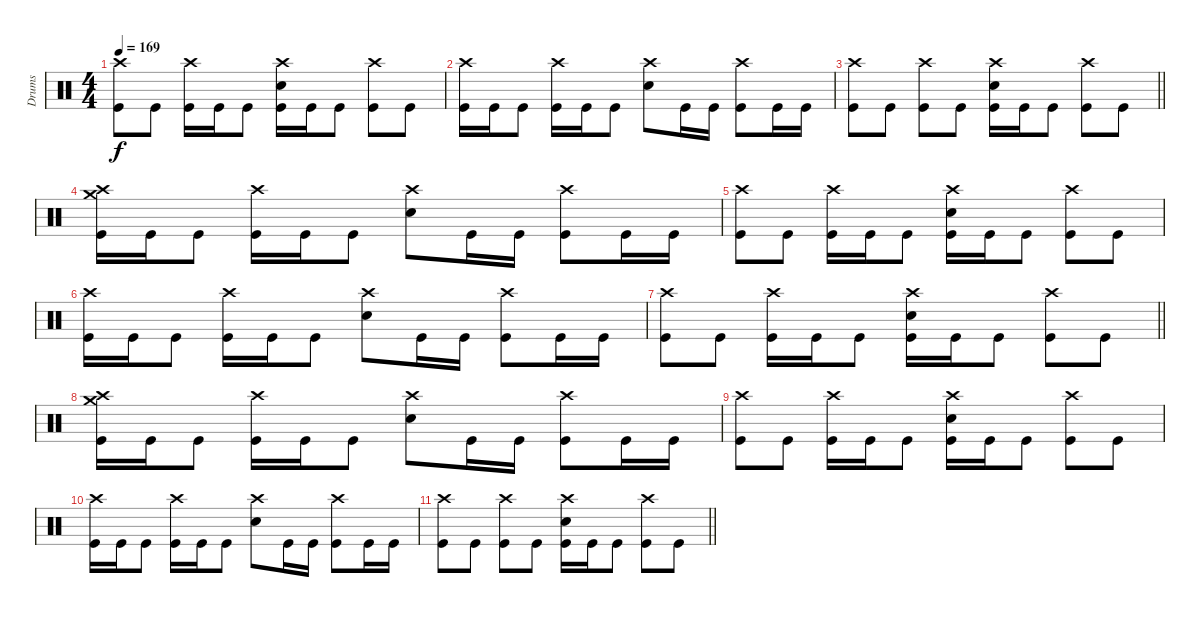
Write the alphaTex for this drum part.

\track ("Drums" "Drums") {instrument percussion}
\staff
\articulation defaults
\ts (4 4)
\tempo 169
\clef neutral
\ks c
("Crash high (hit)" "Kick (hit)").8{dy f} "Kick (hit)".8 ("Crash high (hit)" "Kick (hit)").16 "Kick (hit)".16 "Kick (hit)".8 ("Crash high (hit)" "Electric Snare (hit)" "Kick (hit)").16 "Kick (hit)".16 "Kick (hit)".8 ("Crash high (hit)" "Kick (hit)").8 "Kick (hit)".8 |
("Crash high (hit)" "Kick (hit)").16 "Kick (hit)".16 "Kick (hit)".8 ("Crash high (hit)" "Kick (hit)").16 "Kick (hit)".16 "Kick (hit)".8 ("Crash high (hit)" "Electric Snare (hit)").8 "Kick (hit)".16 "Kick (hit)".16 ("Crash high (hit)" "Kick (hit)").8 "Kick (hit)".16 "Kick (hit)".16 |
\barLineRight lightlight
("Crash high (hit)" "Kick (hit)").8 "Kick (hit)".8 ("Crash high (hit)" "Kick (hit)").8 "Kick (hit)".8 ("Crash high (hit)" "Electric Snare (hit)" "Kick (hit)").16 "Kick (hit)".16 "Kick (hit)".8 ("Crash high (hit)" "Kick (hit)").8 "Kick (hit)".8 |
("Crash high (hit)" "Crash medium (hit)" "Kick (hit)").16 "Kick (hit)".16 "Kick (hit)".8 ("Crash high (hit)" "Kick (hit)").16 "Kick (hit)".16 "Kick (hit)".8 ("Crash high (hit)" "Electric Snare (hit)").8 "Kick (hit)".16 "Kick (hit)".16 ("Crash high (hit)" "Kick (hit)").8 "Kick (hit)".16 "Kick (hit)".16 |
("Crash high (hit)" "Kick (hit)").8 "Kick (hit)".8 ("Crash high (hit)" "Kick (hit)").16 "Kick (hit)".16 "Kick (hit)".8 ("Crash high (hit)" "Electric Snare (hit)" "Kick (hit)").16 "Kick (hit)".16 "Kick (hit)".8 ("Crash high (hit)" "Kick (hit)").8 "Kick (hit)".8 |
("Crash high (hit)" "Kick (hit)").16 "Kick (hit)".16 "Kick (hit)".8 ("Crash high (hit)" "Kick (hit)").16 "Kick (hit)".16 "Kick (hit)".8 ("Crash high (hit)" "Electric Snare (hit)").8 "Kick (hit)".16 "Kick (hit)".16 ("Crash high (hit)" "Kick (hit)").8 "Kick (hit)".16 "Kick (hit)".16 |
\barLineRight lightlight
("Crash high (hit)" "Kick (hit)").8 "Kick (hit)".8 ("Crash high (hit)" "Kick (hit)").16 "Kick (hit)".16 "Kick (hit)".8 ("Crash high (hit)" "Electric Snare (hit)" "Kick (hit)").16 "Kick (hit)".16 "Kick (hit)".8 ("Crash high (hit)" "Kick (hit)").8 "Kick (hit)".8 |
("Crash high (hit)" "Crash medium (hit)" "Kick (hit)").16 "Kick (hit)".16 "Kick (hit)".8 ("Crash high (hit)" "Kick (hit)").16 "Kick (hit)".16 "Kick (hit)".8 ("Crash high (hit)" "Electric Snare (hit)").8 "Kick (hit)".16 "Kick (hit)".16 ("Crash high (hit)" "Kick (hit)").8 "Kick (hit)".16 "Kick (hit)".16 |
("Crash high (hit)" "Kick (hit)").8 "Kick (hit)".8 ("Crash high (hit)" "Kick (hit)").16 "Kick (hit)".16 "Kick (hit)".8 ("Crash high (hit)" "Electric Snare (hit)" "Kick (hit)").16 "Kick (hit)".16 "Kick (hit)".8 ("Crash high (hit)" "Kick (hit)").8 "Kick (hit)".8 |
("Crash high (hit)" "Kick (hit)").16 "Kick (hit)".16 "Kick (hit)".8 ("Crash high (hit)" "Kick (hit)").16 "Kick (hit)".16 "Kick (hit)".8 ("Crash high (hit)" "Electric Snare (hit)").8 "Kick (hit)".16 "Kick (hit)".16 ("Crash high (hit)" "Kick (hit)").8 "Kick (hit)".16 "Kick (hit)".16 |
\barLineRight lightlight
("Crash high (hit)" "Kick (hit)").8 "Kick (hit)".8 ("Crash high (hit)" "Kick (hit)").8 "Kick (hit)".8 ("Crash high (hit)" "Electric Snare (hit)" "Kick (hit)").16 "Kick (hit)".16 "Kick (hit)".8 ("Crash high (hit)" "Kick (hit)").8 "Kick (hit)".8
